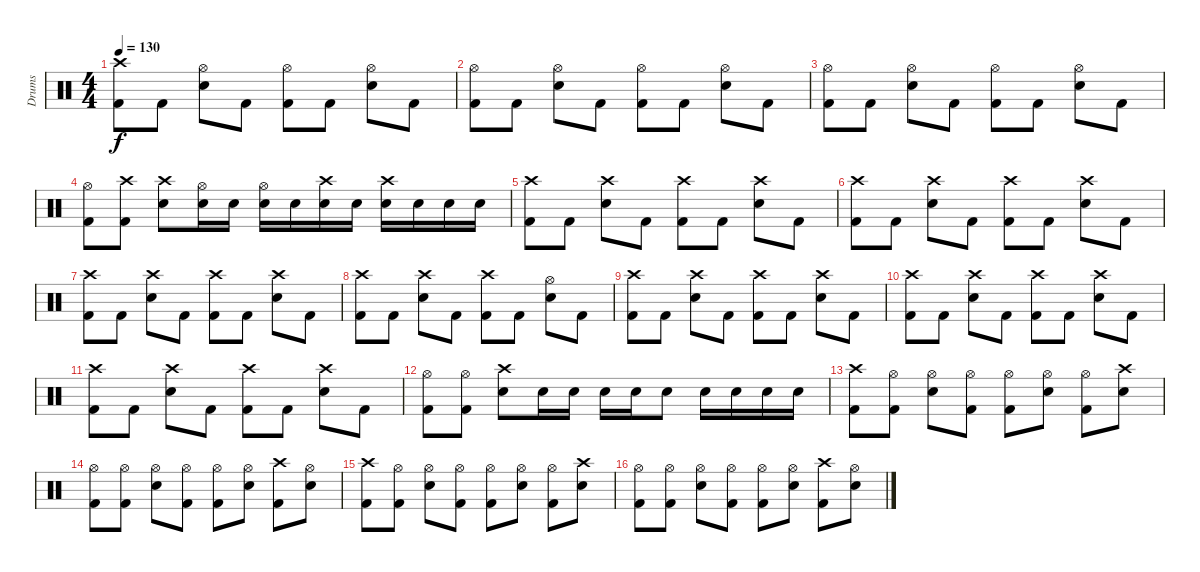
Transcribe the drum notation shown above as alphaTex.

\track ("Drums" "Drums") {instrument percussion}
\staff {score}
\articulation defaults
\ts (4 4)
\tempo 130
\clef neutral
\ks c
("Crash high (hit)" "Kick (hit) 2").8{dy f} "Kick (hit) 2".8 ("Hi-Hat (open)" "Electric Snare (hit)").8 "Kick (hit) 2".8 ("Hi-Hat (open)" "Kick (hit) 2").8 "Kick (hit) 2".8 ("Hi-Hat (open)" "Electric Snare (hit)").8 "Kick (hit) 2".8 |
("Hi-Hat (open)" "Kick (hit) 2").8 "Kick (hit) 2".8 ("Hi-Hat (open)" "Electric Snare (hit)").8 "Kick (hit) 2".8 ("Hi-Hat (open)" "Kick (hit) 2").8 "Kick (hit) 2".8 ("Hi-Hat (open)" "Electric Snare (hit)").8 "Kick (hit) 2".8 |
("Hi-Hat (open)" "Kick (hit) 2").8 "Kick (hit) 2".8 ("Hi-Hat (open)" "Electric Snare (hit)").8 "Kick (hit) 2".8 ("Hi-Hat (open)" "Kick (hit) 2").8 "Kick (hit) 2".8 ("Hi-Hat (open)" "Electric Snare (hit)").8 "Kick (hit) 2".8 |
("Hi-Hat (open)" "Kick (hit) 2").8 ("Crash high (hit)" "Kick (hit) 2").8 ("Crash high (hit)" "Electric Snare (hit)").8 ("Hi-Hat (open)" "Snare (hit) 2").16 "Snare (hit) 2".16 ("Hi-Hat (open)" "Snare (hit) 2").16 "Snare (hit) 2".16 ("Crash high (hit)" "Snare (hit) 2").16 "Snare (hit) 2".16 ("Crash high (hit)" "Snare (hit) 2").16 "Snare (hit) 2".16 "Snare (hit) 2".16 "Snare (hit) 2".16 |
("Crash high (hit)" "Kick (hit) 2").8 "Kick (hit) 2".8 ("Crash high (hit)" "Electric Snare (hit)").8 "Kick (hit) 2".8 ("Crash high (hit)" "Kick (hit) 2").8 "Kick (hit) 2".8 ("Crash high (hit)" "Electric Snare (hit)").8 "Kick (hit) 2".8 |
("Crash high (hit)" "Kick (hit) 2").8 "Kick (hit) 2".8 ("Crash high (hit)" "Electric Snare (hit)").8 "Kick (hit) 2".8 ("Crash high (hit)" "Kick (hit) 2").8 "Kick (hit) 2".8 ("Crash high (hit)" "Electric Snare (hit)").8 "Kick (hit) 2".8 |
("Crash high (hit)" "Kick (hit) 2").8 "Kick (hit) 2".8 ("Crash high (hit)" "Electric Snare (hit)").8 "Kick (hit) 2".8 ("Crash high (hit)" "Kick (hit) 2").8 "Kick (hit) 2".8 ("Crash high (hit)" "Electric Snare (hit)").8 "Kick (hit) 2".8 |
("Crash high (hit)" "Kick (hit) 2").8 "Kick (hit) 2".8 ("Crash high (hit)" "Electric Snare (hit)").8 "Kick (hit) 2".8 ("Crash high (hit)" "Kick (hit) 2").8 "Kick (hit) 2".8 ("Hi-Hat (open)" "Electric Snare (hit)").8 "Kick (hit) 2".8 |
("Crash high (hit)" "Kick (hit) 2").8 "Kick (hit) 2".8 ("Crash high (hit)" "Electric Snare (hit)").8 "Kick (hit) 2".8 ("Crash high (hit)" "Kick (hit) 2").8 "Kick (hit) 2".8 ("Crash high (hit)" "Electric Snare (hit)").8 "Kick (hit) 2".8 |
("Crash high (hit)" "Kick (hit) 2").8 "Kick (hit) 2".8 ("Crash high (hit)" "Electric Snare (hit)").8 "Kick (hit) 2".8 ("Crash high (hit)" "Kick (hit) 2").8 "Kick (hit) 2".8 ("Crash high (hit)" "Electric Snare (hit)").8 "Kick (hit) 2".8 |
("Crash high (hit)" "Kick (hit) 2").8 "Kick (hit) 2".8 ("Crash high (hit)" "Electric Snare (hit)").8 "Kick (hit) 2".8 ("Crash high (hit)" "Kick (hit) 2").8 "Kick (hit) 2".8 ("Crash high (hit)" "Electric Snare (hit)").8 "Kick (hit) 2".8 |
("Hi-Hat (open)" "Kick (hit) 2").8 ("Hi-Hat (open)" "Kick (hit) 2").8 ("Crash high (hit)" "Electric Snare (hit)").8 "Snare (hit) 2".16 "Snare (hit) 2".16 "Snare (hit) 2".16 "Snare (hit) 2".16 "Snare (hit) 2".8 "Snare (hit) 2".16 "Snare (hit) 2".16 "Snare (hit) 2".16 "Snare (hit) 2".16 |
("Crash high (hit)" "Kick (hit) 2").8 ("Hi-Hat (open)" "Kick (hit) 2").8 ("Hi-Hat (open)" "Electric Snare (hit)").8 ("Hi-Hat (open)" "Kick (hit) 2").8 ("Hi-Hat (open)" "Kick (hit) 2").8 ("Hi-Hat (open)" "Electric Snare (hit)").8 ("Hi-Hat (open)" "Kick (hit) 2").8 ("Crash high (hit)" "Electric Snare (hit)").8 |
("Hi-Hat (open)" "Kick (hit) 2").8 ("Hi-Hat (open)" "Kick (hit) 2").8 ("Hi-Hat (open)" "Electric Snare (hit)").8 ("Hi-Hat (open)" "Kick (hit) 2").8 ("Hi-Hat (open)" "Kick (hit) 2").8 ("Hi-Hat (open)" "Electric Snare (hit)").8 ("Crash high (hit)" "Kick (hit) 2").8 ("Hi-Hat (open)" "Electric Snare (hit)").8 |
("Crash high (hit)" "Kick (hit) 2").8 ("Hi-Hat (open)" "Kick (hit) 2").8 ("Hi-Hat (open)" "Electric Snare (hit)").8 ("Hi-Hat (open)" "Kick (hit) 2").8 ("Hi-Hat (open)" "Kick (hit) 2").8 ("Hi-Hat (open)" "Electric Snare (hit)").8 ("Hi-Hat (open)" "Kick (hit) 2").8 ("Crash high (hit)" "Electric Snare (hit)").8 |
("Hi-Hat (open)" "Kick (hit) 2").8 ("Hi-Hat (open)" "Kick (hit) 2").8 ("Hi-Hat (open)" "Electric Snare (hit)").8 ("Hi-Hat (open)" "Kick (hit) 2").8 ("Hi-Hat (open)" "Kick (hit) 2").8 ("Hi-Hat (open)" "Electric Snare (hit)").8 ("Crash high (hit)" "Kick (hit) 2").8 ("Hi-Hat (open)" "Electric Snare (hit)").8
